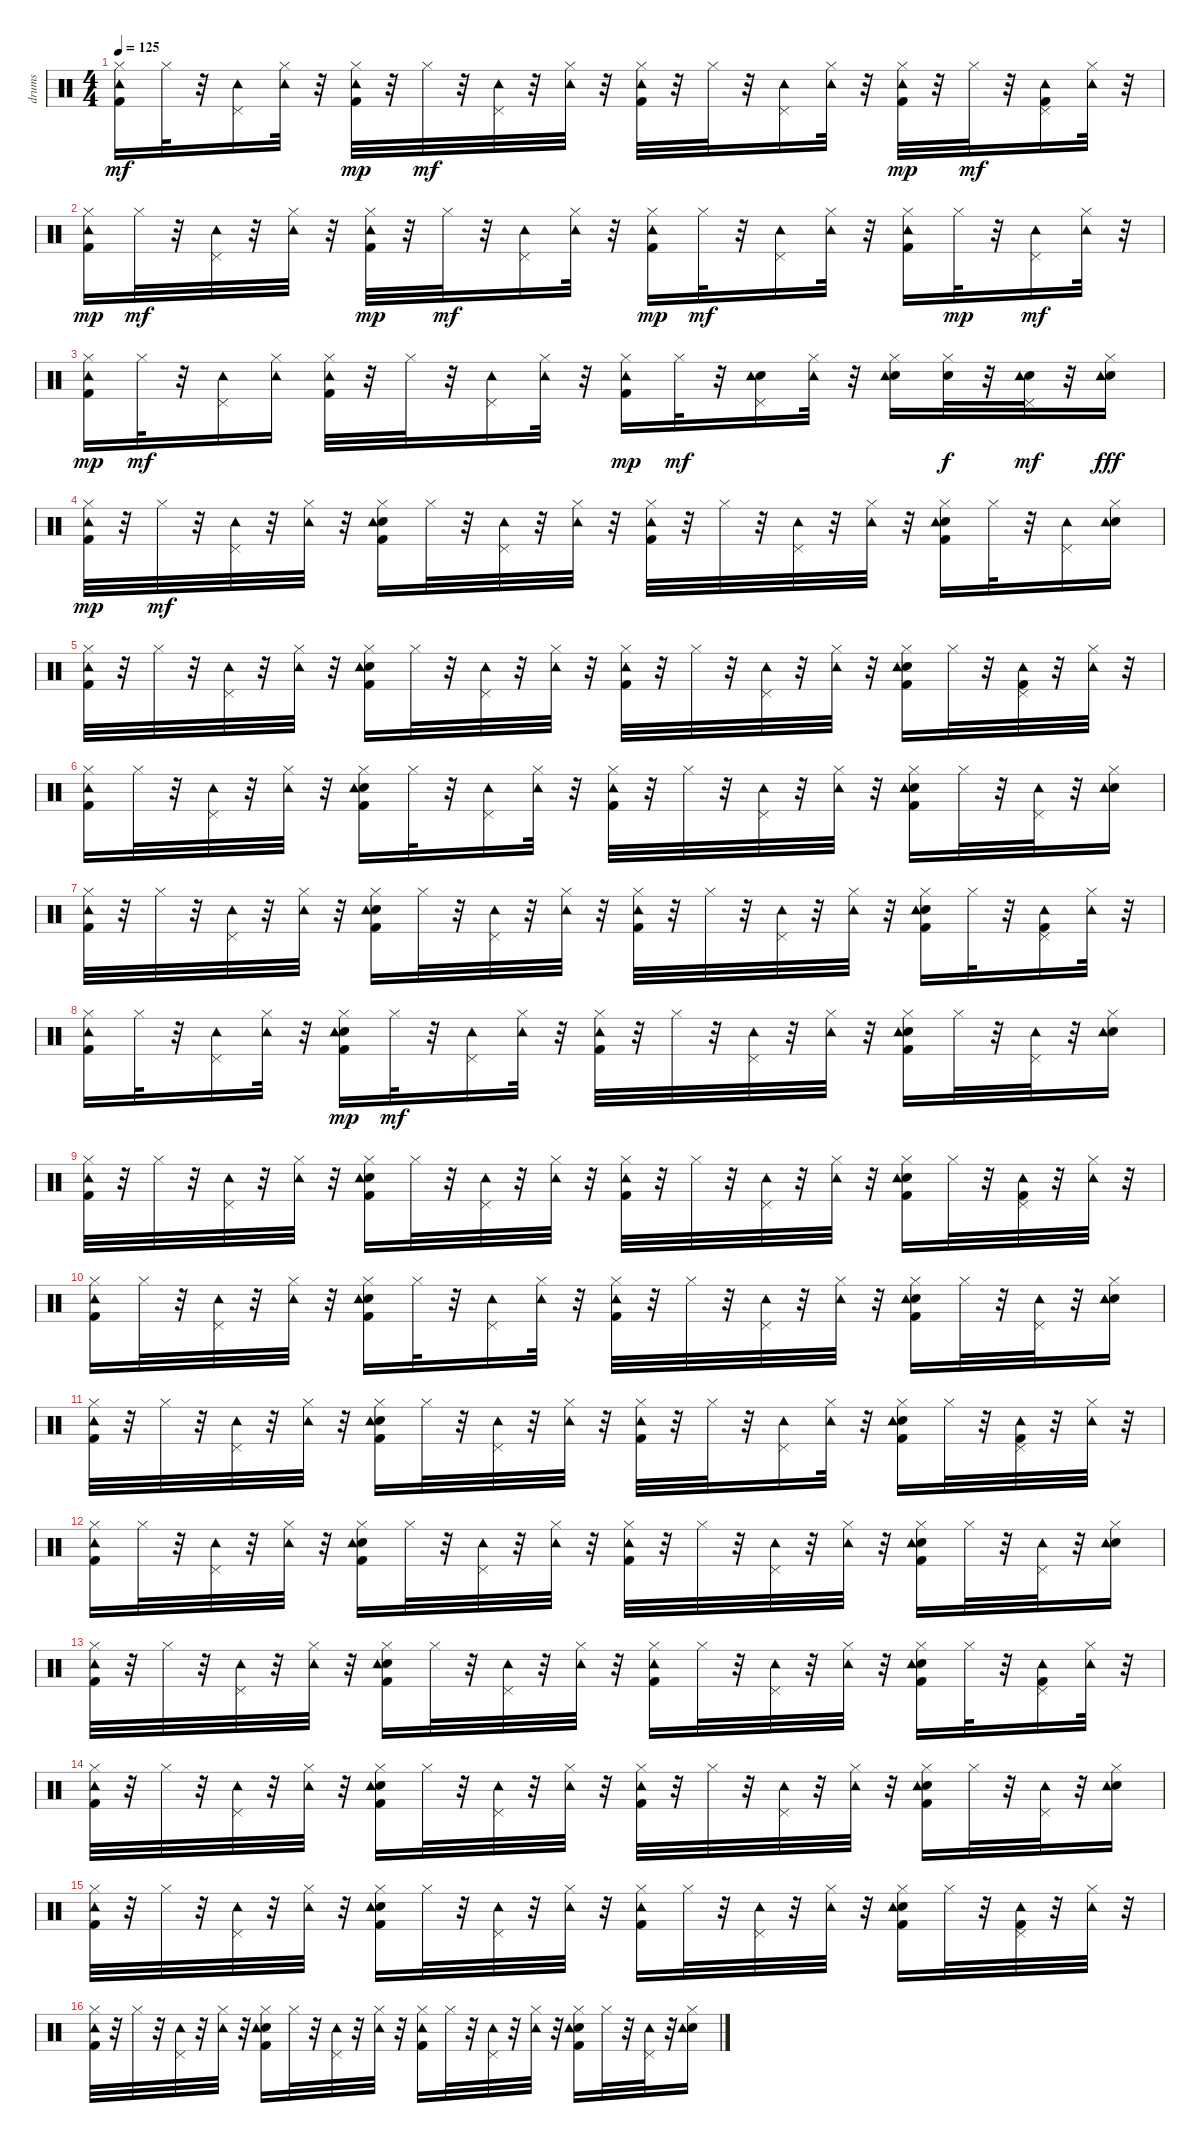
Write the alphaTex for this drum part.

\track ("drums   " "drums   ") {instrument percussion}
\staff {score}
\articulation defaults
\ts (4 4)
\tempo 125
\clef neutral
\ks c
("Kick (hit) 2" "Hi-Hat (closed)" "Tambourine (hit)").16{dy mf} "Hi-Hat (closed)".32 r.32 ("Pedal Hi-Hat (hit)" "Tambourine (hit)").16 ("Hi-Hat (closed)" "Tambourine (hit)").32 r.32 ("Kick (hit) 2" "Hi-Hat (closed)" "Tambourine (hit)").32{dy mp} r.32 "Hi-Hat (closed)".32{dy mf} r.32 ("Pedal Hi-Hat (hit)" "Tambourine (hit)").32 r.32 ("Hi-Hat (closed)" "Tambourine (hit)").32 r.32 ("Kick (hit) 2" "Hi-Hat (closed)" "Tambourine (hit)").32 r.32 "Hi-Hat (closed)".32 r.32 ("Pedal Hi-Hat (hit)" "Tambourine (hit)").16 ("Hi-Hat (closed)" "Tambourine (hit)").32 r.32 ("Kick (hit) 2" "Hi-Hat (closed)" "Tambourine (hit)").32{dy mp} r.32 "Hi-Hat (closed)".32{dy mf} r.32 ("Kick (hit) 2" "Pedal Hi-Hat (hit)" "Tambourine (hit)").16 ("Hi-Hat (closed)" "Tambourine (hit)").32 r.32 |
("Kick (hit) 2" "Hi-Hat (closed)" "Tambourine (hit)").16{dy mp} "Hi-Hat (closed)".32{dy mf} r.32 ("Pedal Hi-Hat (hit)" "Tambourine (hit)").32 r.32 ("Hi-Hat (closed)" "Tambourine (hit)").32 r.32 ("Kick (hit) 2" "Hi-Hat (closed)" "Tambourine (hit)").32{dy mp} r.32 "Hi-Hat (closed)".32{dy mf} r.32 ("Pedal Hi-Hat (hit)" "Tambourine (hit)").16 ("Hi-Hat (closed)" "Tambourine (hit)").32 r.32 ("Kick (hit) 2" "Hi-Hat (closed)" "Tambourine (hit)").16{dy mp} "Hi-Hat (closed)".32{dy mf} r.32 ("Pedal Hi-Hat (hit)" "Tambourine (hit)").16 ("Hi-Hat (closed)" "Tambourine (hit)").32 r.32 ("Kick (hit) 2" "Hi-Hat (closed)" "Tambourine (hit)").16 "Hi-Hat (closed)".32{dy mp} r.32 ("Pedal Hi-Hat (hit)" "Tambourine (hit)").16{dy mf} ("Hi-Hat (closed)" "Tambourine (hit)").32 r.32 |
("Kick (hit) 2" "Hi-Hat (closed)" "Tambourine (hit)").16{dy mp} "Hi-Hat (closed)".32{dy mf} r.32 ("Pedal Hi-Hat (hit)" "Tambourine (hit)").16 ("Hi-Hat (closed)" "Tambourine (hit)").16 ("Kick (hit) 2" "Hi-Hat (closed)" "Tambourine (hit)").32 r.32 "Hi-Hat (closed)".32 r.32 ("Pedal Hi-Hat (hit)" "Tambourine (hit)").16 ("Hi-Hat (closed)" "Tambourine (hit)").32 r.32 ("Kick (hit) 2" "Hi-Hat (closed)" "Tambourine (hit)").16{dy mp} "Hi-Hat (closed)".32{dy mf} r.32 ("Snare (hit) 2" "Pedal Hi-Hat (hit)" "Tambourine (hit)").16 ("Hi-Hat (closed)" "Tambourine (hit)").32 r.32 ("Snare (hit) 2" "Hi-Hat (closed)" "Tambourine (hit)").16 ("Snare (hit) 2" "Hi-Hat (closed)").32{dy f} r.32 ("Snare (hit) 2" "Pedal Hi-Hat (hit)" "Tambourine (hit)").32{dy mf} r.32 ("Snare (hit) 2" "Hi-Hat (closed)" "Tambourine (hit)").16{dy fff} |
("Kick (hit) 2" "Hi-Hat (closed)" "Tambourine (hit)").32{dy mp} r.32 "Hi-Hat (closed)".32{dy mf} r.32 ("Pedal Hi-Hat (hit)" "Tambourine (hit)").32 r.32 ("Hi-Hat (closed)" "Tambourine (hit)").32 r.32 ("Kick (hit) 2" "Snare (hit) 2" "Hi-Hat (closed)" "Tambourine (hit)").16 "Hi-Hat (closed)".32 r.32 ("Pedal Hi-Hat (hit)" "Tambourine (hit)").32 r.32 ("Hi-Hat (closed)" "Tambourine (hit)").32 r.32 ("Kick (hit) 2" "Hi-Hat (closed)" "Tambourine (hit)").32 r.32 "Hi-Hat (closed)".32 r.32 ("Pedal Hi-Hat (hit)" "Tambourine (hit)").32 r.32 ("Hi-Hat (closed)" "Tambourine (hit)").32 r.32 ("Kick (hit) 2" "Snare (hit) 2" "Hi-Hat (closed)" "Tambourine (hit)").16 "Hi-Hat (closed)".32 r.32 ("Pedal Hi-Hat (hit)" "Tambourine (hit)").16 ("Snare (hit) 2" "Hi-Hat (closed)" "Tambourine (hit)").16 |
("Kick (hit) 2" "Hi-Hat (closed)" "Tambourine (hit)").32 r.32 "Hi-Hat (closed)".32 r.32 ("Pedal Hi-Hat (hit)" "Tambourine (hit)").32 r.32 ("Hi-Hat (closed)" "Tambourine (hit)").32 r.32 ("Kick (hit) 2" "Snare (hit) 2" "Hi-Hat (closed)" "Tambourine (hit)").16 "Hi-Hat (closed)".32 r.32 ("Pedal Hi-Hat (hit)" "Tambourine (hit)").32 r.32 ("Hi-Hat (closed)" "Tambourine (hit)").32 r.32 ("Kick (hit) 2" "Hi-Hat (closed)" "Tambourine (hit)").32 r.32 "Hi-Hat (closed)".32 r.32 ("Pedal Hi-Hat (hit)" "Tambourine (hit)").32 r.32 ("Hi-Hat (closed)" "Tambourine (hit)").32 r.32 ("Kick (hit) 2" "Snare (hit) 2" "Hi-Hat (closed)" "Tambourine (hit)").16 "Hi-Hat (closed)".32 r.32 ("Kick (hit) 2" "Pedal Hi-Hat (hit)" "Tambourine (hit)").32 r.32 ("Hi-Hat (closed)" "Tambourine (hit)").32 r.32 |
("Kick (hit) 2" "Hi-Hat (closed)" "Tambourine (hit)").16 "Hi-Hat (closed)".32 r.32 ("Pedal Hi-Hat (hit)" "Tambourine (hit)").32 r.32 ("Hi-Hat (closed)" "Tambourine (hit)").32 r.32 ("Kick (hit) 2" "Snare (hit) 2" "Hi-Hat (closed)" "Tambourine (hit)").16 "Hi-Hat (closed)".32 r.32 ("Pedal Hi-Hat (hit)" "Tambourine (hit)").16 ("Hi-Hat (closed)" "Tambourine (hit)").32 r.32 ("Kick (hit) 2" "Hi-Hat (closed)" "Tambourine (hit)").32 r.32 "Hi-Hat (closed)".32 r.32 ("Pedal Hi-Hat (hit)" "Tambourine (hit)").32 r.32 ("Hi-Hat (closed)" "Tambourine (hit)").32 r.32 ("Kick (hit) 2" "Snare (hit) 2" "Hi-Hat (closed)" "Tambourine (hit)").16 "Hi-Hat (closed)".32 r.32 ("Pedal Hi-Hat (hit)" "Tambourine (hit)").32 r.32 ("Snare (hit) 2" "Hi-Hat (closed)" "Tambourine (hit)").16 |
("Kick (hit) 2" "Hi-Hat (closed)" "Tambourine (hit)").32 r.32 "Hi-Hat (closed)".32 r.32 ("Pedal Hi-Hat (hit)" "Tambourine (hit)").32 r.32 ("Hi-Hat (closed)" "Tambourine (hit)").32 r.32 ("Kick (hit) 2" "Snare (hit) 2" "Hi-Hat (closed)" "Tambourine (hit)").16 "Hi-Hat (closed)".32 r.32 ("Pedal Hi-Hat (hit)" "Tambourine (hit)").32 r.32 ("Hi-Hat (closed)" "Tambourine (hit)").32 r.32 ("Kick (hit) 2" "Hi-Hat (closed)" "Tambourine (hit)").32 r.32 "Hi-Hat (closed)".32 r.32 ("Pedal Hi-Hat (hit)" "Tambourine (hit)").32 r.32 ("Hi-Hat (closed)" "Tambourine (hit)").32 r.32 ("Kick (hit) 2" "Snare (hit) 2" "Hi-Hat (closed)" "Tambourine (hit)").16 "Hi-Hat (closed)".32 r.32 ("Kick (hit) 2" "Pedal Hi-Hat (hit)" "Tambourine (hit)").16 ("Hi-Hat (closed)" "Tambourine (hit)").32 r.32 |
("Kick (hit) 2" "Hi-Hat (closed)" "Tambourine (hit)").16 "Hi-Hat (closed)".32 r.32 ("Pedal Hi-Hat (hit)" "Tambourine (hit)").16 ("Hi-Hat (closed)" "Tambourine (hit)").32 r.32 ("Kick (hit) 2" "Snare (hit) 2" "Hi-Hat (closed)" "Tambourine (hit)").16{dy mp} "Hi-Hat (closed)".32{dy mf} r.32 ("Pedal Hi-Hat (hit)" "Tambourine (hit)").16 ("Hi-Hat (closed)" "Tambourine (hit)").32 r.32 ("Kick (hit) 2" "Hi-Hat (closed)" "Tambourine (hit)").32 r.32 "Hi-Hat (closed)".32 r.32 ("Pedal Hi-Hat (hit)" "Tambourine (hit)").32 r.32 ("Hi-Hat (closed)" "Tambourine (hit)").32 r.32 ("Kick (hit) 2" "Snare (hit) 2" "Hi-Hat (closed)" "Tambourine (hit)").16 "Hi-Hat (closed)".32 r.32 ("Pedal Hi-Hat (hit)" "Tambourine (hit)").32 r.32 ("Snare (hit) 2" "Hi-Hat (closed)" "Tambourine (hit)").16 |
("Kick (hit) 2" "Hi-Hat (closed)" "Tambourine (hit)").32 r.32 "Hi-Hat (closed)".32 r.32 ("Pedal Hi-Hat (hit)" "Tambourine (hit)").32 r.32 ("Hi-Hat (closed)" "Tambourine (hit)").32 r.32 ("Kick (hit) 2" "Snare (hit) 2" "Hi-Hat (closed)" "Tambourine (hit)").16 "Hi-Hat (closed)".32 r.32 ("Pedal Hi-Hat (hit)" "Tambourine (hit)").32 r.32 ("Hi-Hat (closed)" "Tambourine (hit)").32 r.32 ("Kick (hit) 2" "Hi-Hat (closed)" "Tambourine (hit)").32 r.32 "Hi-Hat (closed)".32 r.32 ("Pedal Hi-Hat (hit)" "Tambourine (hit)").32 r.32 ("Hi-Hat (closed)" "Tambourine (hit)").32 r.32 ("Kick (hit) 2" "Snare (hit) 2" "Hi-Hat (closed)" "Tambourine (hit)").16 "Hi-Hat (closed)".32 r.32 ("Kick (hit) 2" "Pedal Hi-Hat (hit)" "Tambourine (hit)").32 r.32 ("Hi-Hat (closed)" "Tambourine (hit)").32 r.32 |
("Kick (hit) 2" "Hi-Hat (closed)" "Tambourine (hit)").16 "Hi-Hat (closed)".32 r.32 ("Pedal Hi-Hat (hit)" "Tambourine (hit)").32 r.32 ("Hi-Hat (closed)" "Tambourine (hit)").32 r.32 ("Kick (hit) 2" "Snare (hit) 2" "Hi-Hat (closed)" "Tambourine (hit)").16 "Hi-Hat (closed)".32 r.32 ("Pedal Hi-Hat (hit)" "Tambourine (hit)").16 ("Hi-Hat (closed)" "Tambourine (hit)").32 r.32 ("Kick (hit) 2" "Hi-Hat (closed)" "Tambourine (hit)").32 r.32 "Hi-Hat (closed)".32 r.32 ("Pedal Hi-Hat (hit)" "Tambourine (hit)").32 r.32 ("Hi-Hat (closed)" "Tambourine (hit)").32 r.32 ("Kick (hit) 2" "Snare (hit) 2" "Hi-Hat (closed)" "Tambourine (hit)").16 "Hi-Hat (closed)".32 r.32 ("Pedal Hi-Hat (hit)" "Tambourine (hit)").32 r.32 ("Snare (hit) 2" "Hi-Hat (closed)" "Tambourine (hit)").16 |
("Kick (hit) 2" "Hi-Hat (closed)" "Tambourine (hit)").32 r.32 "Hi-Hat (closed)".32 r.32 ("Pedal Hi-Hat (hit)" "Tambourine (hit)").32 r.32 ("Hi-Hat (closed)" "Tambourine (hit)").32 r.32 ("Kick (hit) 2" "Snare (hit) 2" "Hi-Hat (closed)" "Tambourine (hit)").16 "Hi-Hat (closed)".32 r.32 ("Pedal Hi-Hat (hit)" "Tambourine (hit)").32 r.32 ("Hi-Hat (closed)" "Tambourine (hit)").32 r.32 ("Kick (hit) 2" "Hi-Hat (closed)" "Tambourine (hit)").32 r.32 "Hi-Hat (closed)".32 r.32 ("Pedal Hi-Hat (hit)" "Tambourine (hit)").16 ("Hi-Hat (closed)" "Tambourine (hit)").32 r.32 ("Kick (hit) 2" "Snare (hit) 2" "Hi-Hat (closed)" "Tambourine (hit)").16 "Hi-Hat (closed)".32 r.32 ("Kick (hit) 2" "Pedal Hi-Hat (hit)" "Tambourine (hit)").32 r.32 ("Hi-Hat (closed)" "Tambourine (hit)").32 r.32 |
("Kick (hit) 2" "Hi-Hat (closed)" "Tambourine (hit)").16 "Hi-Hat (closed)".32 r.32 ("Pedal Hi-Hat (hit)" "Tambourine (hit)").32 r.32 ("Hi-Hat (closed)" "Tambourine (hit)").32 r.32 ("Kick (hit) 2" "Snare (hit) 2" "Hi-Hat (closed)" "Tambourine (hit)").16 "Hi-Hat (closed)".32 r.32 ("Pedal Hi-Hat (hit)" "Tambourine (hit)").32 r.32 ("Hi-Hat (closed)" "Tambourine (hit)").32 r.32 ("Kick (hit) 2" "Hi-Hat (closed)" "Tambourine (hit)").32 r.32 "Hi-Hat (closed)".32 r.32 ("Pedal Hi-Hat (hit)" "Tambourine (hit)").32 r.32 ("Hi-Hat (closed)" "Tambourine (hit)").32 r.32 ("Kick (hit) 2" "Snare (hit) 2" "Hi-Hat (closed)" "Tambourine (hit)").16 "Hi-Hat (closed)".32 r.32 ("Pedal Hi-Hat (hit)" "Tambourine (hit)").32 r.32 ("Snare (hit) 2" "Hi-Hat (closed)" "Tambourine (hit)").16 |
("Kick (hit) 2" "Hi-Hat (closed)" "Tambourine (hit)").32 r.32 "Hi-Hat (closed)".32 r.32 ("Pedal Hi-Hat (hit)" "Tambourine (hit)").32 r.32 ("Hi-Hat (closed)" "Tambourine (hit)").32 r.32 ("Kick (hit) 2" "Snare (hit) 2" "Hi-Hat (closed)" "Tambourine (hit)").16 "Hi-Hat (closed)".32 r.32 ("Pedal Hi-Hat (hit)" "Tambourine (hit)").32 r.32 ("Hi-Hat (closed)" "Tambourine (hit)").32 r.32 ("Kick (hit) 2" "Hi-Hat (closed)" "Tambourine (hit)").16 "Hi-Hat (closed)".32 r.32 ("Pedal Hi-Hat (hit)" "Tambourine (hit)").32 r.32 ("Hi-Hat (closed)" "Tambourine (hit)").32 r.32 ("Kick (hit) 2" "Snare (hit) 2" "Hi-Hat (closed)" "Tambourine (hit)").16 "Hi-Hat (closed)".32 r.32 ("Kick (hit) 2" "Pedal Hi-Hat (hit)" "Tambourine (hit)").16 ("Hi-Hat (closed)" "Tambourine (hit)").32 r.32 |
("Kick (hit) 2" "Hi-Hat (closed)" "Tambourine (hit)").32 r.32 "Hi-Hat (closed)".32 r.32 ("Pedal Hi-Hat (hit)" "Tambourine (hit)").32 r.32 ("Hi-Hat (closed)" "Tambourine (hit)").32 r.32 ("Kick (hit) 2" "Snare (hit) 2" "Hi-Hat (closed)" "Tambourine (hit)").16 "Hi-Hat (closed)".32 r.32 ("Pedal Hi-Hat (hit)" "Tambourine (hit)").32 r.32 ("Hi-Hat (closed)" "Tambourine (hit)").32 r.32 ("Kick (hit) 2" "Hi-Hat (closed)" "Tambourine (hit)").32 r.32 "Hi-Hat (closed)".32 r.32 ("Pedal Hi-Hat (hit)" "Tambourine (hit)").32 r.32 ("Hi-Hat (closed)" "Tambourine (hit)").32 r.32 ("Kick (hit) 2" "Snare (hit) 2" "Hi-Hat (closed)" "Tambourine (hit)").16 "Hi-Hat (closed)".32 r.32 ("Pedal Hi-Hat (hit)" "Tambourine (hit)").32 r.32 ("Snare (hit) 2" "Hi-Hat (closed)" "Tambourine (hit)").16 |
("Kick (hit) 2" "Hi-Hat (closed)" "Tambourine (hit)").32 r.32 "Hi-Hat (closed)".32 r.32 ("Pedal Hi-Hat (hit)" "Tambourine (hit)").32 r.32 ("Hi-Hat (closed)" "Tambourine (hit)").32 r.32 ("Kick (hit) 2" "Snare (hit) 2" "Hi-Hat (closed)" "Tambourine (hit)").16 "Hi-Hat (closed)".32 r.32 ("Pedal Hi-Hat (hit)" "Tambourine (hit)").32 r.32 ("Hi-Hat (closed)" "Tambourine (hit)").32 r.32 ("Kick (hit) 2" "Hi-Hat (closed)" "Tambourine (hit)").16 "Hi-Hat (closed)".32 r.32 ("Pedal Hi-Hat (hit)" "Tambourine (hit)").32 r.32 ("Hi-Hat (closed)" "Tambourine (hit)").32 r.32 ("Kick (hit) 2" "Snare (hit) 2" "Hi-Hat (closed)" "Tambourine (hit)").16 "Hi-Hat (closed)".32 r.32 ("Kick (hit) 2" "Pedal Hi-Hat (hit)" "Tambourine (hit)").32 r.32 ("Hi-Hat (closed)" "Tambourine (hit)").32 r.32 |
("Kick (hit) 2" "Hi-Hat (closed)" "Tambourine (hit)").32 r.32 "Hi-Hat (closed)".32 r.32 ("Pedal Hi-Hat (hit)" "Tambourine (hit)").32 r.32 ("Hi-Hat (closed)" "Tambourine (hit)").32 r.32 ("Kick (hit) 2" "Snare (hit) 2" "Hi-Hat (closed)" "Tambourine (hit)").16 "Hi-Hat (closed)".32 r.32 ("Pedal Hi-Hat (hit)" "Tambourine (hit)").32 r.32 ("Hi-Hat (closed)" "Tambourine (hit)").32 r.32 ("Kick (hit) 2" "Hi-Hat (closed)" "Tambourine (hit)").16 "Hi-Hat (closed)".32 r.32 ("Pedal Hi-Hat (hit)" "Tambourine (hit)").32 r.32 ("Hi-Hat (closed)" "Tambourine (hit)").32 r.32 ("Kick (hit) 2" "Snare (hit) 2" "Hi-Hat (closed)" "Tambourine (hit)").16 "Hi-Hat (closed)".32 r.32 ("Pedal Hi-Hat (hit)" "Tambourine (hit)").32 r.32 ("Snare (hit) 2" "Hi-Hat (closed)" "Tambourine (hit)").16
